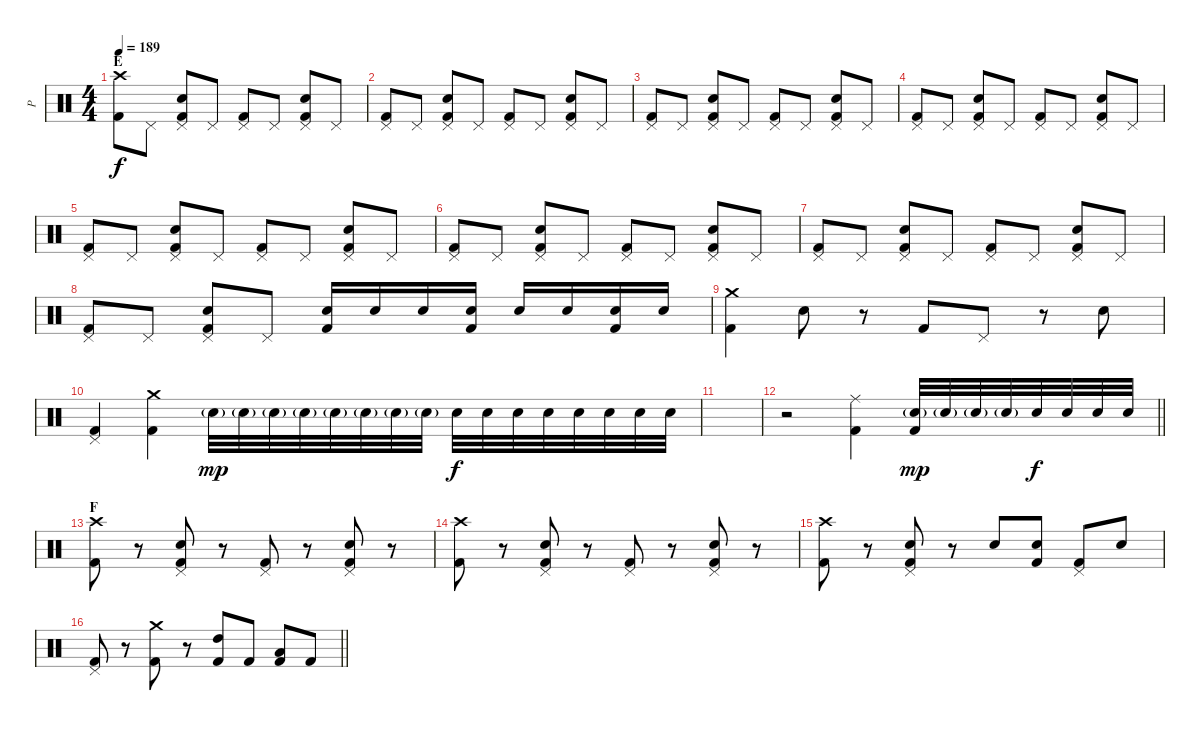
\track ("P" "P") {instrument percussion}
\staff {score}
\articulation defaults
\ts (4 4)
\section ("" "E")
\tempo 189
\clef neutral
\ks c
("Crash high (hit)" "Kick (hit) 2").8{dy f} "Pedal Hi-Hat (hit)".8 ("Pedal Hi-Hat (hit)" "Electric Snare (hit)" "Kick (hit) 2").8 "Pedal Hi-Hat (hit)".8 ("Pedal Hi-Hat (hit)" "Kick (hit) 2").8 "Pedal Hi-Hat (hit)".8 ("Pedal Hi-Hat (hit)" "Electric Snare (hit)" "Kick (hit) 2").8 "Pedal Hi-Hat (hit)".8 |
("Pedal Hi-Hat (hit)" "Kick (hit) 2").8 "Pedal Hi-Hat (hit)".8 ("Pedal Hi-Hat (hit)" "Electric Snare (hit)" "Kick (hit) 2").8 "Pedal Hi-Hat (hit)".8 ("Pedal Hi-Hat (hit)" "Kick (hit) 2").8 "Pedal Hi-Hat (hit)".8 ("Pedal Hi-Hat (hit)" "Electric Snare (hit)" "Kick (hit) 2").8 "Pedal Hi-Hat (hit)".8 |
("Pedal Hi-Hat (hit)" "Kick (hit) 2").8 "Pedal Hi-Hat (hit)".8 ("Pedal Hi-Hat (hit)" "Electric Snare (hit)" "Kick (hit) 2").8 "Pedal Hi-Hat (hit)".8 ("Pedal Hi-Hat (hit)" "Kick (hit) 2").8 "Pedal Hi-Hat (hit)".8 ("Pedal Hi-Hat (hit)" "Electric Snare (hit)" "Kick (hit) 2").8 "Pedal Hi-Hat (hit)".8 |
("Pedal Hi-Hat (hit)" "Kick (hit) 2").8 "Pedal Hi-Hat (hit)".8 ("Pedal Hi-Hat (hit)" "Electric Snare (hit)" "Kick (hit) 2").8 "Pedal Hi-Hat (hit)".8 ("Pedal Hi-Hat (hit)" "Kick (hit) 2").8 "Pedal Hi-Hat (hit)".8 ("Pedal Hi-Hat (hit)" "Electric Snare (hit)" "Kick (hit) 2").8 "Pedal Hi-Hat (hit)".8 |
("Pedal Hi-Hat (hit)" "Kick (hit) 2").8 "Pedal Hi-Hat (hit)".8 ("Pedal Hi-Hat (hit)" "Electric Snare (hit)" "Kick (hit) 2").8 "Pedal Hi-Hat (hit)".8 ("Pedal Hi-Hat (hit)" "Kick (hit) 2").8 "Pedal Hi-Hat (hit)".8 ("Pedal Hi-Hat (hit)" "Electric Snare (hit)" "Kick (hit) 2").8 "Pedal Hi-Hat (hit)".8 |
("Pedal Hi-Hat (hit)" "Kick (hit) 2").8 "Pedal Hi-Hat (hit)".8 ("Pedal Hi-Hat (hit)" "Electric Snare (hit)" "Kick (hit) 2").8 "Pedal Hi-Hat (hit)".8 ("Pedal Hi-Hat (hit)" "Kick (hit) 2").8 "Pedal Hi-Hat (hit)".8 ("Pedal Hi-Hat (hit)" "Electric Snare (hit)" "Kick (hit) 2").8 "Pedal Hi-Hat (hit)".8 |
("Pedal Hi-Hat (hit)" "Kick (hit) 2").8 "Pedal Hi-Hat (hit)".8 ("Pedal Hi-Hat (hit)" "Electric Snare (hit)" "Kick (hit) 2").8 "Pedal Hi-Hat (hit)".8 ("Pedal Hi-Hat (hit)" "Kick (hit) 2").8 "Pedal Hi-Hat (hit)".8 ("Pedal Hi-Hat (hit)" "Electric Snare (hit)" "Kick (hit) 2").8 "Pedal Hi-Hat (hit)".8 |
("Pedal Hi-Hat (hit)" "Kick (hit) 2").8 "Pedal Hi-Hat (hit)".8 ("Pedal Hi-Hat (hit)" "Electric Snare (hit)" "Kick (hit) 2").8 "Pedal Hi-Hat (hit)".8 ("Electric Snare (hit)" "Kick (hit) 2").16 "Electric Snare (hit)".16 "Electric Snare (hit)".16 ("Electric Snare (hit)" "Kick (hit) 2").16 "Electric Snare (hit)".16 "Electric Snare (hit)".16 ("Electric Snare (hit)" "Kick (hit) 2").16 "Electric Snare (hit)".16 |
("Crash medium (hit)" "Kick (hit) 2").4 "Electric Snare (hit)".8 r.8 "Kick (hit) 2".8 "Pedal Hi-Hat (hit)".8 r.8 "Electric Snare (hit)".8 |
("Pedal Hi-Hat (hit)" "Kick (hit) 2").4 ("Crash medium (hit)" "Kick (hit) 2").4 "Electric Snare (hit)"{g}.32{dy mp} "Electric Snare (hit)"{g}.32 "Electric Snare (hit)"{g}.32 "Electric Snare (hit)"{g}.32 "Electric Snare (hit)"{g}.32 "Electric Snare (hit)"{g}.32 "Electric Snare (hit)"{g}.32 "Electric Snare (hit)"{g}.32 "Electric Snare (hit)".32{dy f} "Electric Snare (hit)".32 "Electric Snare (hit)".32 "Electric Snare (hit)".32 "Electric Snare (hit)".32 "Electric Snare (hit)".32 "Electric Snare (hit)".32 "Electric Snare (hit)".32 |
|
\barLineRight lightlight
r.2 ("Ride (middle)" "Kick (hit) 2").4 ("Electric Snare (hit)"{g} "Kick (hit) 2").32{dy mp} "Electric Snare (hit)"{g}.32 "Electric Snare (hit)"{g}.32 "Electric Snare (hit)"{g}.32 "Electric Snare (hit)".32{dy f} "Electric Snare (hit)".32 "Electric Snare (hit)".32 "Electric Snare (hit)".32 |
\section ("" "F")
("Crash high (hit)" "Kick (hit) 2").8 r.8 ("Pedal Hi-Hat (hit)" "Electric Snare (hit)" "Kick (hit) 2").8 r.8 ("Pedal Hi-Hat (hit)" "Kick (hit) 2").8 r.8 ("Pedal Hi-Hat (hit)" "Electric Snare (hit)" "Kick (hit) 2").8 r.8 |
("Crash high (hit)" "Kick (hit) 2").8 r.8 ("Pedal Hi-Hat (hit)" "Electric Snare (hit)" "Kick (hit) 2").8 r.8 ("Pedal Hi-Hat (hit)" "Kick (hit) 2").8 r.8 ("Pedal Hi-Hat (hit)" "Electric Snare (hit)" "Kick (hit) 2").8 r.8 |
("Crash high (hit)" "Kick (hit) 2").8 r.8 ("Pedal Hi-Hat (hit)" "Electric Snare (hit)" "Kick (hit) 2").8 r.8 "Electric Snare (hit)".8 ("Electric Snare (hit)" "Kick (hit) 2").8 ("Pedal Hi-Hat (hit)" "Kick (hit) 2").8 "Electric Snare (hit)".8 |
\barLineRight lightlight
("Pedal Hi-Hat (hit)" "Kick (hit) 2").8 r.8 ("Crash medium (hit)" "Kick (hit) 2").8 r.8 ("High Tom (hit)" "Kick (hit) 2").8 "Kick (hit) 2".8 ("Low Tom (hit)" "Kick (hit) 2").8 "Kick (hit) 2".8
